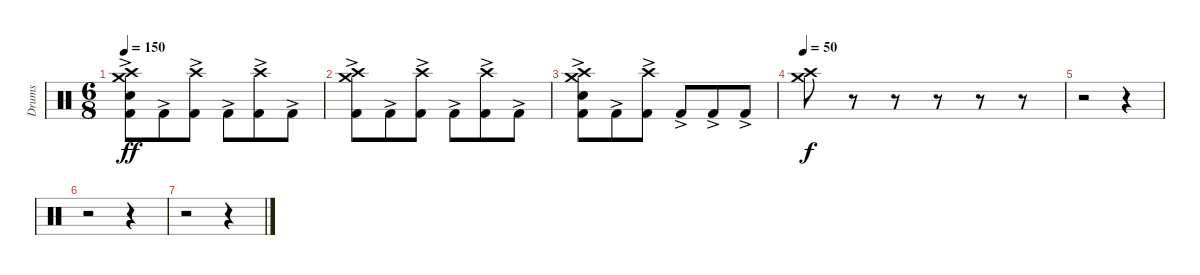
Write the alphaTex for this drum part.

\track ("Drums" "Drums") {mute instrument percussion}
\staff {score}
\articulation defaults
\ts (6 8)
\tempo 150
\clef neutral
\ks c
("Crash medium (hit)" "Crash high (hit)" "Electric Snare (hit)" "Kick (hit) 2"{ac}).8{dy ff} "Kick (hit) 2"{ac}.8 ("Crash high (hit)" "Kick (hit) 2"{ac}).8 "Kick (hit) 2"{ac}.8 ("Crash high (hit)" "Kick (hit) 2"{ac}).8 "Kick (hit) 2"{ac}.8 |
("Crash medium (hit)" "Crash high (hit)" "Kick (hit) 2"{ac}).8 "Kick (hit) 2"{ac}.8 ("Crash high (hit)" "Kick (hit) 2"{ac}).8 "Kick (hit) 2"{ac}.8 ("Crash high (hit)" "Kick (hit) 2"{ac}).8 "Kick (hit) 2"{ac}.8 |
("Crash medium (hit)" "Crash high (hit)" "Electric Snare (hit)" "Kick (hit) 2"{ac}).8 "Kick (hit) 2"{ac}.8 ("Crash high (hit)" "Kick (hit) 2"{ac}).8 "Kick (hit) 2"{ac}.8 "Kick (hit) 2"{ac}.8 "Kick (hit) 2"{ac}.8 |
\tempo 50
("Crash medium (hit)" "Crash high (hit)").8{dy f} r.8 r.8 r.8 r.8 r.8 |
r.2 r.4 |
r.2 r.4 |
r.2 r.4
